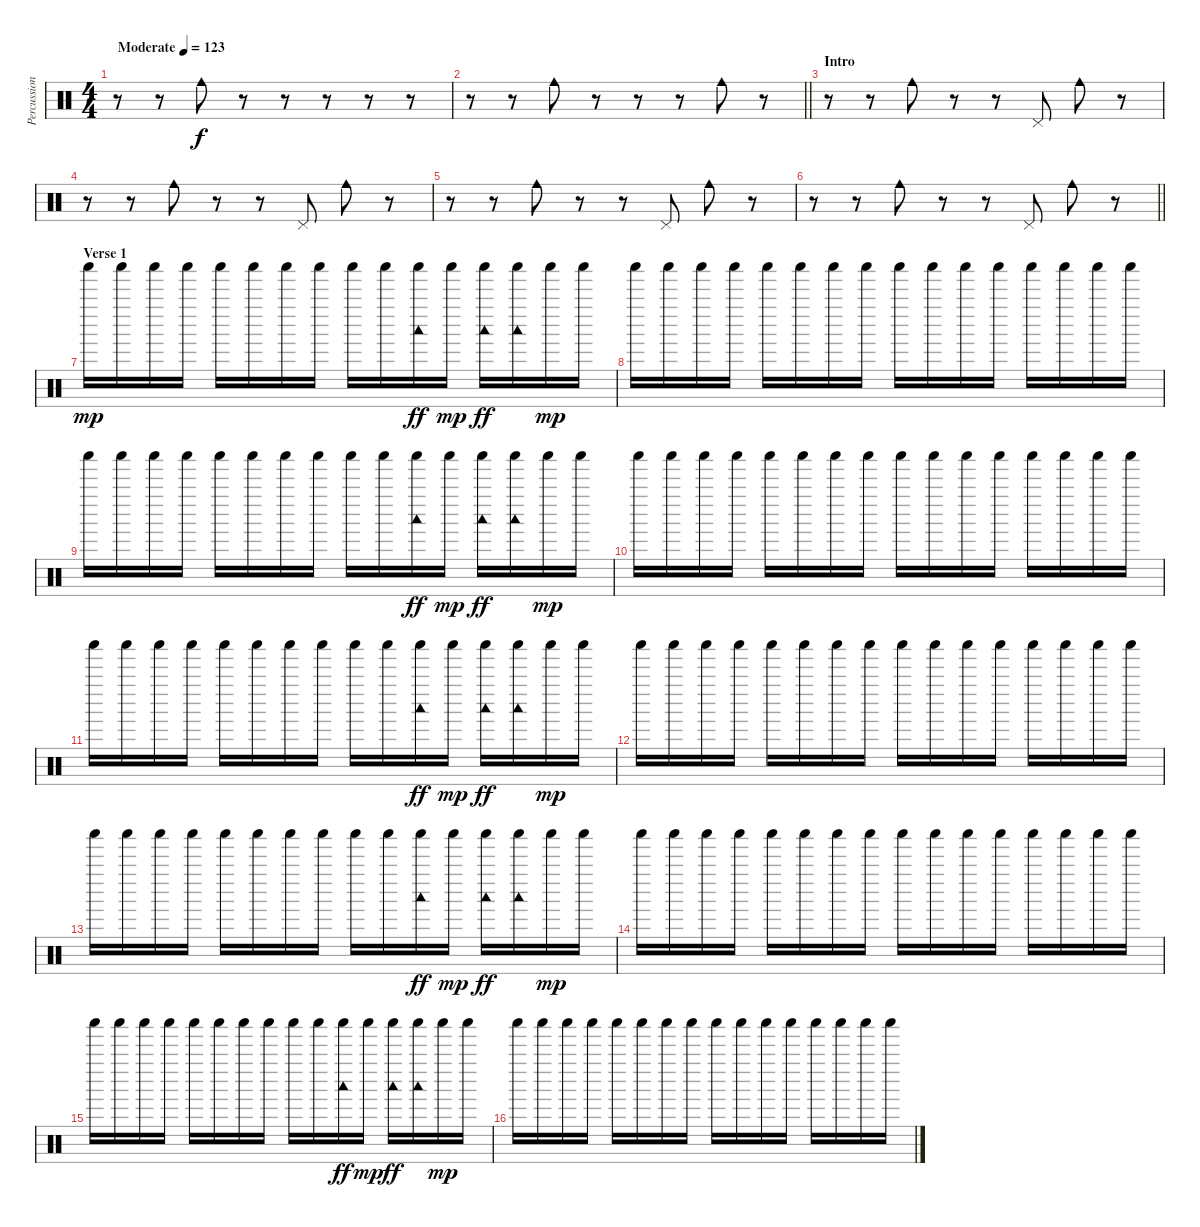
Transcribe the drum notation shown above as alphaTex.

\track ("Percussion" "Percussion") {instrument percussion}
\staff {score}
\articulation defaults
\ts (4 4)
\tempo (123 "Moderate")
\clef neutral
\ks c
r.8{dy f} r.8 "Cowbell medium (hit)".8 r.8 r.8 r.8 r.8 r.8 |
\barLineRight lightlight
r.8 r.8 "Cowbell medium (hit)".8 r.8 r.8 r.8 "Cowbell medium (hit)".8 r.8 |
\section ("" "Intro")
r.8 r.8 "Cowbell medium (hit)".8 r.8 r.8 "Pedal Hi-Hat (hit)".8 "Cowbell medium (hit)".8 r.8 |
r.8 r.8 "Cowbell medium (hit)".8 r.8 r.8 "Pedal Hi-Hat (hit)".8 "Cowbell medium (hit)".8 r.8 |
r.8 r.8 "Cowbell medium (hit)".8 r.8 r.8 "Pedal Hi-Hat (hit)".8 "Cowbell medium (hit)".8 r.8 |
\barLineRight lightlight
r.8 r.8 "Cowbell medium (hit)".8 r.8 r.8 "Pedal Hi-Hat (hit)".8 "Cowbell medium (hit)".8 r.8 |
\section ("" "Verse 1")
"Shaker (hit)".16{dy mp} "Shaker (hit)".16 "Shaker (hit)".16 "Shaker (hit)".16 "Shaker (hit)".16 "Shaker (hit)".16 "Shaker (hit)".16 "Shaker (hit)".16 "Shaker (hit)".16 "Shaker (hit)".16 ("Shaker (hit)" "Woodblock low (hit)").16{dy ff} "Shaker (hit)".16{dy mp} ("Shaker (hit)" "Woodblock low (hit)").16{dy ff} ("Shaker (hit)" "Woodblock low (hit)").16 "Shaker (hit)".16{dy mp} "Shaker (hit)".16 |
"Shaker (hit)".16 "Shaker (hit)".16 "Shaker (hit)".16 "Shaker (hit)".16 "Shaker (hit)".16 "Shaker (hit)".16 "Shaker (hit)".16 "Shaker (hit)".16 "Shaker (hit)".16 "Shaker (hit)".16 "Shaker (hit)".16 "Shaker (hit)".16 "Shaker (hit)".16 "Shaker (hit)".16 "Shaker (hit)".16 "Shaker (hit)".16 |
"Shaker (hit)".16 "Shaker (hit)".16 "Shaker (hit)".16 "Shaker (hit)".16 "Shaker (hit)".16 "Shaker (hit)".16 "Shaker (hit)".16 "Shaker (hit)".16 "Shaker (hit)".16 "Shaker (hit)".16 ("Shaker (hit)" "Woodblock low (hit)").16{dy ff} "Shaker (hit)".16{dy mp} ("Shaker (hit)" "Woodblock low (hit)").16{dy ff} ("Shaker (hit)" "Woodblock low (hit)").16 "Shaker (hit)".16{dy mp} "Shaker (hit)".16 |
"Shaker (hit)".16 "Shaker (hit)".16 "Shaker (hit)".16 "Shaker (hit)".16 "Shaker (hit)".16 "Shaker (hit)".16 "Shaker (hit)".16 "Shaker (hit)".16 "Shaker (hit)".16 "Shaker (hit)".16 "Shaker (hit)".16 "Shaker (hit)".16 "Shaker (hit)".16 "Shaker (hit)".16 "Shaker (hit)".16 "Shaker (hit)".16 |
"Shaker (hit)".16 "Shaker (hit)".16 "Shaker (hit)".16 "Shaker (hit)".16 "Shaker (hit)".16 "Shaker (hit)".16 "Shaker (hit)".16 "Shaker (hit)".16 "Shaker (hit)".16 "Shaker (hit)".16 ("Shaker (hit)" "Woodblock low (hit)").16{dy ff} "Shaker (hit)".16{dy mp} ("Shaker (hit)" "Woodblock low (hit)").16{dy ff} ("Shaker (hit)" "Woodblock low (hit)").16 "Shaker (hit)".16{dy mp} "Shaker (hit)".16 |
"Shaker (hit)".16 "Shaker (hit)".16 "Shaker (hit)".16 "Shaker (hit)".16 "Shaker (hit)".16 "Shaker (hit)".16 "Shaker (hit)".16 "Shaker (hit)".16 "Shaker (hit)".16 "Shaker (hit)".16 "Shaker (hit)".16 "Shaker (hit)".16 "Shaker (hit)".16 "Shaker (hit)".16 "Shaker (hit)".16 "Shaker (hit)".16 |
"Shaker (hit)".16 "Shaker (hit)".16 "Shaker (hit)".16 "Shaker (hit)".16 "Shaker (hit)".16 "Shaker (hit)".16 "Shaker (hit)".16 "Shaker (hit)".16 "Shaker (hit)".16 "Shaker (hit)".16 ("Shaker (hit)" "Woodblock low (hit)").16{dy ff} "Shaker (hit)".16{dy mp} ("Shaker (hit)" "Woodblock low (hit)").16{dy ff} ("Shaker (hit)" "Woodblock low (hit)").16 "Shaker (hit)".16{dy mp} "Shaker (hit)".16 |
"Shaker (hit)".16 "Shaker (hit)".16 "Shaker (hit)".16 "Shaker (hit)".16 "Shaker (hit)".16 "Shaker (hit)".16 "Shaker (hit)".16 "Shaker (hit)".16 "Shaker (hit)".16 "Shaker (hit)".16 "Shaker (hit)".16 "Shaker (hit)".16 "Shaker (hit)".16 "Shaker (hit)".16 "Shaker (hit)".16 "Shaker (hit)".16 |
"Shaker (hit)".16 "Shaker (hit)".16 "Shaker (hit)".16 "Shaker (hit)".16 "Shaker (hit)".16 "Shaker (hit)".16 "Shaker (hit)".16 "Shaker (hit)".16 "Shaker (hit)".16 "Shaker (hit)".16 ("Shaker (hit)" "Woodblock low (hit)").16{dy ff} "Shaker (hit)".16{dy mp} ("Shaker (hit)" "Woodblock low (hit)").16{dy ff} ("Shaker (hit)" "Woodblock low (hit)").16 "Shaker (hit)".16{dy mp} "Shaker (hit)".16 |
"Shaker (hit)".16 "Shaker (hit)".16 "Shaker (hit)".16 "Shaker (hit)".16 "Shaker (hit)".16 "Shaker (hit)".16 "Shaker (hit)".16 "Shaker (hit)".16 "Shaker (hit)".16 "Shaker (hit)".16 "Shaker (hit)".16 "Shaker (hit)".16 "Shaker (hit)".16 "Shaker (hit)".16 "Shaker (hit)".16 "Shaker (hit)".16
